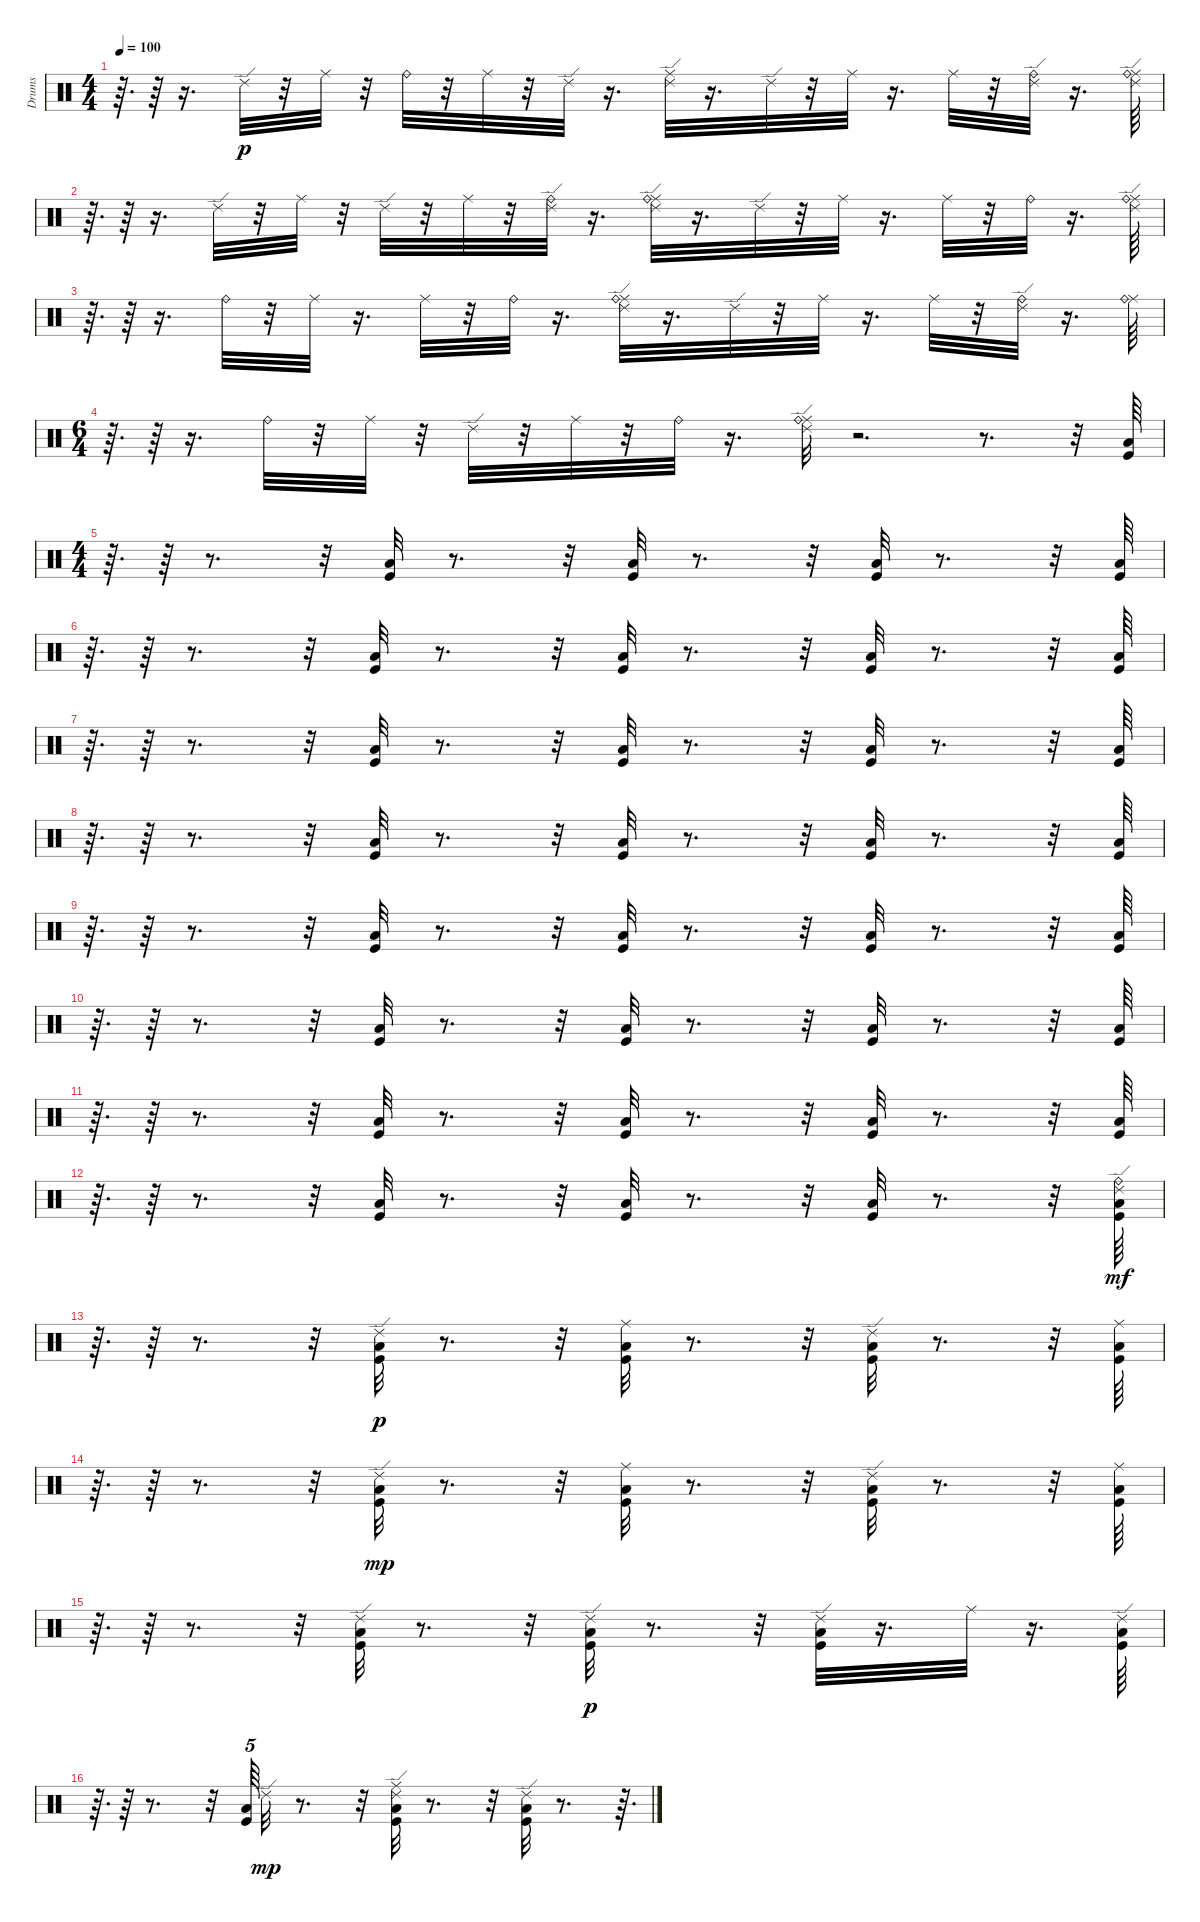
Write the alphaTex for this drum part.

\track ("Drums" "Drums") {instrument percussion}
\staff {score}
\articulation defaults
\ts (4 4)
\tempo 100
\clef neutral
\ks c
r.64{d dy p} r.64 r.16{d} "Ride (edge) 2".32 r.32 "Ride (middle)".32 r.32 "Ride (bell)".32 r.32 "Ride (middle)".32 r.32 "Ride (edge) 2".32 r.16{d} ("Ride (middle)" "Ride (edge) 2").32 r.16{d} "Ride (edge) 2".32 r.32 "Ride (middle)".32 r.16{d} "Ride (middle)".32 r.32 ("Ride (bell)" "Ride (edge) 2").32 r.16{d} ("Ride (middle)" "Ride (bell)" "Ride (edge) 2").64 |
r.64{d} r.64 r.16{d} "Ride (edge) 2".32 r.32 "Ride (middle)".32 r.32 "Ride (edge) 2".32 r.32 "Ride (middle)".32 r.32 ("Ride (bell)" "Ride (edge) 2").32 r.16{d} ("Ride (middle)" "Ride (edge) 2" "Ride (bell)").32 r.16{d} "Ride (edge) 2".32 r.32 "Ride (middle)".32 r.16{d} "Ride (middle)".32 r.32 "Ride (bell)".32 r.16{d} ("Ride (middle)" "Ride (bell)" "Ride (edge) 2").64 |
r.64{d} r.64 r.16{d} "Ride (bell)".32 r.32 "Ride (middle)".32 r.16{d} "Ride (middle)".32 r.32 "Ride (bell)".32 r.16{d} ("Ride (middle)" "Ride (edge) 2" "Ride (bell)").32 r.16{d} "Ride (edge) 2".32 r.32 "Ride (middle)".32 r.16{d} "Ride (middle)".32 r.32 ("Ride (edge) 2" "Ride (bell)").32 r.16{d} ("Ride (middle)" "Ride (bell)").64 |
\ts (6 4)
r.64{d} r.64 r.16{d} "Ride (bell)".32 r.32 "Ride (middle)".32 r.32 "Ride (edge) 2".32 r.32 "Ride (middle)".32 r.32 "Ride (bell)".32 r.16{d} ("Ride (middle)" "Ride (edge) 2" "Ride (bell)").32 r.2{d} r.8{d} r.32 ("Kick (hit)" "Low Floor Tom (hit)").64 |
\ts (4 4)
r.64{d} r.64 r.8{d} r.32 ("Low Floor Tom (hit)" "Kick (hit)").32 r.8{d} r.32 ("Kick (hit)" "Low Floor Tom (hit)").32 r.8{d} r.32 ("Kick (hit)" "Low Floor Tom (hit)").32 r.8{d} r.32 ("Kick (hit)" "Low Floor Tom (hit)").64 |
r.64{d} r.64 r.8{d} r.32 ("Low Floor Tom (hit)" "Kick (hit)").32 r.8{d} r.32 ("Kick (hit)" "Low Floor Tom (hit)").32 r.8{d} r.32 ("Kick (hit)" "Low Floor Tom (hit)").32 r.8{d} r.32 ("Kick (hit)" "Low Floor Tom (hit)").64 |
r.64{d} r.64 r.8{d} r.32 ("Low Floor Tom (hit)" "Kick (hit)").32 r.8{d} r.32 ("Kick (hit)" "Low Floor Tom (hit)").32 r.8{d} r.32 ("Kick (hit)" "Low Floor Tom (hit)").32 r.8{d} r.32 ("Kick (hit)" "Low Floor Tom (hit)").64 |
r.64{d} r.64 r.8{d} r.32 ("Low Floor Tom (hit)" "Kick (hit)").32 r.8{d} r.32 ("Kick (hit)" "Low Floor Tom (hit)").32 r.8{d} r.32 ("Kick (hit)" "Low Floor Tom (hit)").32 r.8{d} r.32 ("Kick (hit)" "Low Floor Tom (hit)").64 |
r.64{d} r.64 r.8{d} r.32 ("Low Floor Tom (hit)" "Kick (hit)").32 r.8{d} r.32 ("Kick (hit)" "Low Floor Tom (hit)").32 r.8{d} r.32 ("Kick (hit)" "Low Floor Tom (hit)").32 r.8{d} r.32 ("Kick (hit)" "Low Floor Tom (hit)").64 |
r.64{d} r.64 r.8{d} r.32 ("Low Floor Tom (hit)" "Kick (hit)").32 r.8{d} r.32 ("Kick (hit)" "Low Floor Tom (hit)").32 r.8{d} r.32 ("Kick (hit)" "Low Floor Tom (hit)").32 r.8{d} r.32 ("Kick (hit)" "Low Floor Tom (hit)").64 |
r.64{d} r.64 r.8{d} r.32 ("Low Floor Tom (hit)" "Kick (hit)").32 r.8{d} r.32 ("Kick (hit)" "Low Floor Tom (hit)").32 r.8{d} r.32 ("Kick (hit)" "Low Floor Tom (hit)").32 r.8{d} r.32 ("Kick (hit)" "Low Floor Tom (hit)").64 |
r.64{d} r.64 r.8{d} r.32 ("Low Floor Tom (hit)" "Kick (hit)").32 r.8{d} r.32 ("Kick (hit)" "Low Floor Tom (hit)").32 r.8{d} r.32 ("Kick (hit)" "Low Floor Tom (hit)").32 r.8{d} r.32 ("Kick (hit)" "Low Floor Tom (hit)" "Ride (bell)" "Ride (edge) 2").64{dy mf} |
r.64{d} r.64 r.8{d} r.32 ("Ride (edge) 2" "Low Floor Tom (hit)" "Kick (hit)").32{dy p} r.8{d} r.32 ("Ride (middle)" "Kick (hit)" "Low Floor Tom (hit)").32 r.8{d} r.32 ("Ride (edge) 2" "Kick (hit)" "Low Floor Tom (hit)").32 r.8{d} r.32 ("Ride (middle)" "Kick (hit)" "Low Floor Tom (hit)").64 |
r.64{d} r.64 r.8{d} r.32 ("Low Floor Tom (hit)" "Kick (hit)" "Ride (edge) 2").32{dy mp} r.8{d} r.32 ("Kick (hit)" "Low Floor Tom (hit)" "Ride (middle)").32 r.8{d} r.32 ("Kick (hit)" "Low Floor Tom (hit)" "Ride (edge) 2").32 r.8{d} r.32 ("Kick (hit)" "Low Floor Tom (hit)" "Ride (middle)").64 |
r.64{d} r.64 r.8{d} r.32 ("Low Floor Tom (hit)" "Kick (hit)" "Ride (edge) 2").32 r.8{d} r.32 ("Ride (edge) 2" "Kick (hit)" "Low Floor Tom (hit)").32{dy p} r.8{d} r.32 ("Ride (edge) 2" "Kick (hit)" "Low Floor Tom (hit)").32 r.16{d} "Ride (middle)".32 r.16{d} ("Ride (edge) 2" "Kick (hit)" "Low Floor Tom (hit)").64 |
r.64{d} r.64 r.8{d} r.32 ("Low Floor Tom (hit)" "Kick (hit)").64{tu (5 4)} "Ride (edge) 2".32{dy mp} r.8{d} r.32 ("Kick (hit)" "Low Floor Tom (hit)" "Ride (middle)" "Ride (edge) 2").32 r.8{d} r.32 ("Kick (hit)" "Low Floor Tom (hit)" "Ride (edge) 2").32 r.8{d} r.64{d}
